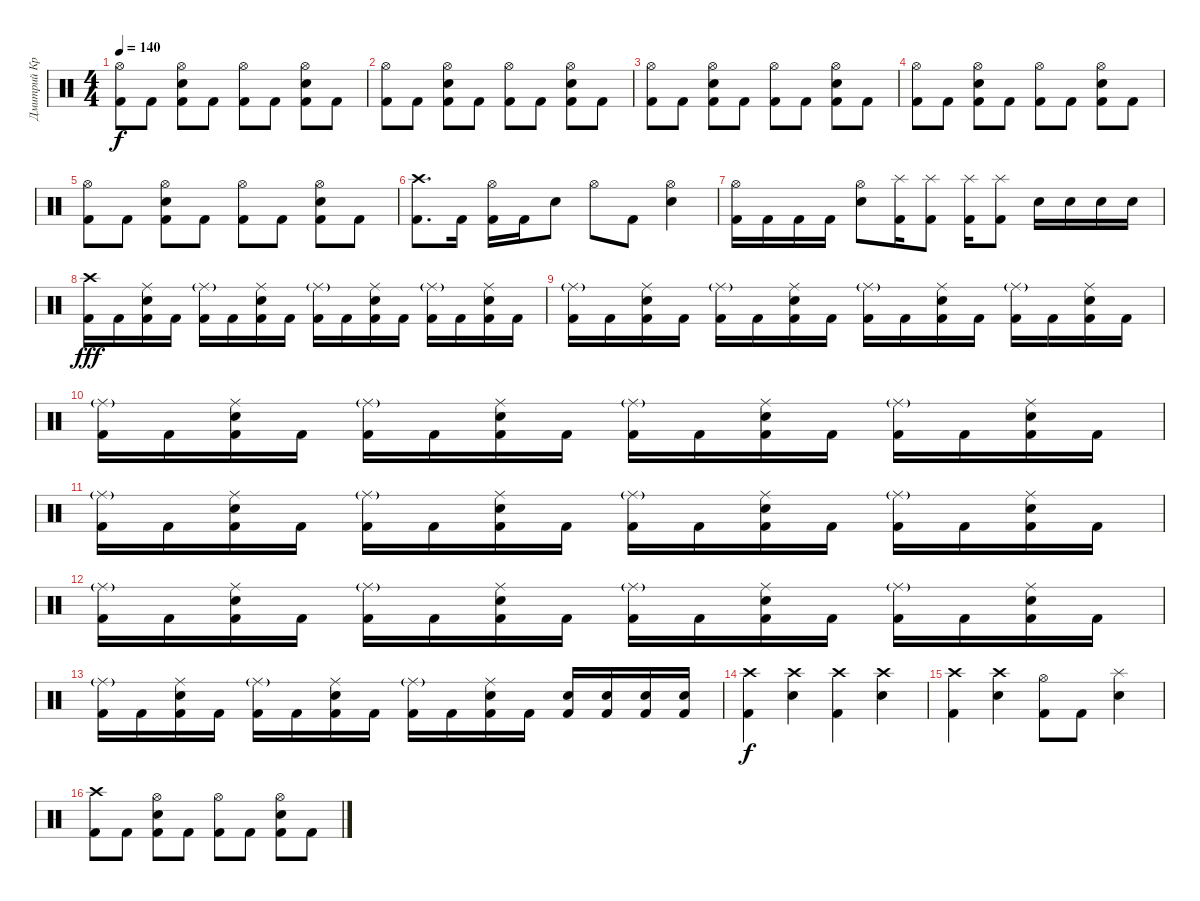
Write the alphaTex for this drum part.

\track ("Дмитрий Кривенков" "Дмитрий Кр") {instrument percussion}
\staff {score}
\articulation defaults
\ts (4 4)
\tempo 140
\clef neutral
\ks c
("Hi-Hat (open)" "Kick (hit) 2").8{dy f} "Kick (hit) 2".8 ("Hi-Hat (open)" "Electric Snare (hit)" "Kick (hit) 2").8 "Kick (hit) 2".8 ("Hi-Hat (open)" "Kick (hit) 2").8 "Kick (hit) 2".8 ("Hi-Hat (open)" "Electric Snare (hit)" "Kick (hit) 2").8 "Kick (hit) 2".8 |
("Hi-Hat (open)" "Kick (hit) 2").8 "Kick (hit) 2".8 ("Hi-Hat (open)" "Electric Snare (hit)" "Kick (hit) 2").8 "Kick (hit) 2".8 ("Hi-Hat (open)" "Kick (hit) 2").8 "Kick (hit) 2".8 ("Hi-Hat (open)" "Electric Snare (hit)" "Kick (hit) 2").8 "Kick (hit) 2".8 |
("Hi-Hat (open)" "Kick (hit) 2").8 "Kick (hit) 2".8 ("Hi-Hat (open)" "Electric Snare (hit)" "Kick (hit) 2").8 "Kick (hit) 2".8 ("Hi-Hat (open)" "Kick (hit) 2").8 "Kick (hit) 2".8 ("Hi-Hat (open)" "Electric Snare (hit)" "Kick (hit) 2").8 "Kick (hit) 2".8 |
("Hi-Hat (open)" "Kick (hit) 2").8 "Kick (hit) 2".8 ("Hi-Hat (open)" "Electric Snare (hit)" "Kick (hit) 2").8 "Kick (hit) 2".8 ("Hi-Hat (open)" "Kick (hit) 2").8 "Kick (hit) 2".8 ("Hi-Hat (open)" "Electric Snare (hit)" "Kick (hit) 2").8 "Kick (hit) 2".8 |
("Hi-Hat (open)" "Kick (hit) 2").8 "Kick (hit) 2".8 ("Hi-Hat (open)" "Electric Snare (hit)" "Kick (hit) 2").8 "Kick (hit) 2".8 ("Hi-Hat (open)" "Kick (hit) 2").8 "Kick (hit) 2".8 ("Hi-Hat (open)" "Electric Snare (hit)" "Kick (hit) 2").8 "Kick (hit) 2".8 |
("Crash high (hit)" "Kick (hit) 2").8{d} "Kick (hit) 2".16 ("Hi-Hat (open)" "Kick (hit) 2").16 "Kick (hit) 2".16 "Electric Snare (hit)".8 "Hi-Hat (open)".8 "Kick (hit) 2".8 ("Hi-Hat (open)" "Electric Snare (hit)").4 |
("Hi-Hat (open)" "Kick (hit) 2").16 "Kick (hit) 2".16 "Kick (hit) 2".16 "Kick (hit) 2".16 ("Hi-Hat (open)" "Electric Snare (hit)").8 ("Splash (hit)" "Kick (hit) 2").16 ("Splash (hit)" "Kick (hit) 2").8 ("Splash (hit)" "Kick (hit) 2").16 ("Splash (hit)" "Kick (hit) 2").8 "Electric Snare (hit)".16 "Electric Snare (hit)".16 "Electric Snare (hit)".16 "Electric Snare (hit)".16 |
("Crash high (hit)" "Kick (hit) 2").16{dy fff} "Kick (hit) 2".16 ("Ride (middle)" "Electric Snare (hit)" "Kick (hit) 2").16 "Kick (hit) 2".16 ("Ride (middle)"{g} "Kick (hit) 2").16 "Kick (hit) 2".16 ("Ride (middle)" "Electric Snare (hit)" "Kick (hit) 2").16 "Kick (hit) 2".16 ("Ride (middle)"{g} "Kick (hit) 2").16 "Kick (hit) 2".16 ("Ride (middle)" "Electric Snare (hit)" "Kick (hit) 2").16 "Kick (hit) 2".16 ("Ride (middle)"{g} "Kick (hit) 2").16 "Kick (hit) 2".16 ("Ride (middle)" "Electric Snare (hit)" "Kick (hit) 2").16 "Kick (hit) 2".16 |
("Ride (middle)"{g} "Kick (hit) 2").16 "Kick (hit) 2".16 ("Ride (middle)" "Electric Snare (hit)" "Kick (hit) 2").16 "Kick (hit) 2".16 ("Ride (middle)"{g} "Kick (hit) 2").16 "Kick (hit) 2".16 ("Ride (middle)" "Electric Snare (hit)" "Kick (hit) 2").16 "Kick (hit) 2".16 ("Ride (middle)"{g} "Kick (hit) 2").16 "Kick (hit) 2".16 ("Ride (middle)" "Electric Snare (hit)" "Kick (hit) 2").16 "Kick (hit) 2".16 ("Ride (middle)"{g} "Kick (hit) 2").16 "Kick (hit) 2".16 ("Ride (middle)" "Electric Snare (hit)" "Kick (hit) 2").16 "Kick (hit) 2".16 |
("Ride (middle)"{g} "Kick (hit) 2").16 "Kick (hit) 2".16 ("Ride (middle)" "Electric Snare (hit)" "Kick (hit) 2").16 "Kick (hit) 2".16 ("Ride (middle)"{g} "Kick (hit) 2").16 "Kick (hit) 2".16 ("Ride (middle)" "Electric Snare (hit)" "Kick (hit) 2").16 "Kick (hit) 2".16 ("Ride (middle)"{g} "Kick (hit) 2").16 "Kick (hit) 2".16 ("Ride (middle)" "Electric Snare (hit)" "Kick (hit) 2").16 "Kick (hit) 2".16 ("Ride (middle)"{g} "Kick (hit) 2").16 "Kick (hit) 2".16 ("Ride (middle)" "Electric Snare (hit)" "Kick (hit) 2").16 "Kick (hit) 2".16 |
("Ride (middle)"{g} "Kick (hit) 2").16 "Kick (hit) 2".16 ("Ride (middle)" "Electric Snare (hit)" "Kick (hit) 2").16 "Kick (hit) 2".16 ("Ride (middle)"{g} "Kick (hit) 2").16 "Kick (hit) 2".16 ("Ride (middle)" "Electric Snare (hit)" "Kick (hit) 2").16 "Kick (hit) 2".16 ("Ride (middle)"{g} "Kick (hit) 2").16 "Kick (hit) 2".16 ("Ride (middle)" "Electric Snare (hit)" "Kick (hit) 2").16 "Kick (hit) 2".16 ("Ride (middle)"{g} "Kick (hit) 2").16 "Kick (hit) 2".16 ("Ride (middle)" "Electric Snare (hit)" "Kick (hit) 2").16 "Kick (hit) 2".16 |
("Ride (middle)"{g} "Kick (hit) 2").16 "Kick (hit) 2".16 ("Ride (middle)" "Electric Snare (hit)" "Kick (hit) 2").16 "Kick (hit) 2".16 ("Ride (middle)"{g} "Kick (hit) 2").16 "Kick (hit) 2".16 ("Ride (middle)" "Electric Snare (hit)" "Kick (hit) 2").16 "Kick (hit) 2".16 ("Ride (middle)"{g} "Kick (hit) 2").16 "Kick (hit) 2".16 ("Ride (middle)" "Electric Snare (hit)" "Kick (hit) 2").16 "Kick (hit) 2".16 ("Ride (middle)"{g} "Kick (hit) 2").16 "Kick (hit) 2".16 ("Ride (middle)" "Electric Snare (hit)" "Kick (hit) 2").16 "Kick (hit) 2".16 |
("Ride (middle)"{g} "Kick (hit) 2").16 "Kick (hit) 2".16 ("Ride (middle)" "Electric Snare (hit)" "Kick (hit) 2").16 "Kick (hit) 2".16 ("Ride (middle)"{g} "Kick (hit) 2").16 "Kick (hit) 2".16 ("Ride (middle)" "Electric Snare (hit)" "Kick (hit) 2").16 "Kick (hit) 2".16 ("Ride (middle)"{g} "Kick (hit) 2").16 "Kick (hit) 2".16 ("Ride (middle)" "Electric Snare (hit)" "Kick (hit) 2").16 "Kick (hit) 2".16 ("Electric Snare (hit)" "Kick (hit) 2").16 ("Electric Snare (hit)" "Kick (hit) 2").16 ("Electric Snare (hit)" "Kick (hit) 2").16 ("Electric Snare (hit)" "Kick (hit) 2").16 |
("Crash high (hit)" "Kick (hit) 2").4{dy f} ("Crash high (hit)" "Electric Snare (hit)").4 ("Crash high (hit)" "Kick (hit) 2").4 ("Crash high (hit)" "Electric Snare (hit)").4 |
("Crash high (hit)" "Kick (hit) 2").4 ("Crash high (hit)" "Electric Snare (hit)").4 ("Hi-Hat (open)" "Kick (hit) 2").8 "Kick (hit) 2".8 ("Splash (hit)" "Electric Snare (hit)").4 |
("Crash high (hit)" "Kick (hit) 2").8 "Kick (hit) 2".8 ("Hi-Hat (open)" "Electric Snare (hit)" "Kick (hit) 2").8 "Kick (hit) 2".8 ("Hi-Hat (open)" "Kick (hit) 2").8 "Kick (hit) 2".8 ("Hi-Hat (open)" "Electric Snare (hit)" "Kick (hit) 2").8 "Kick (hit) 2".8
